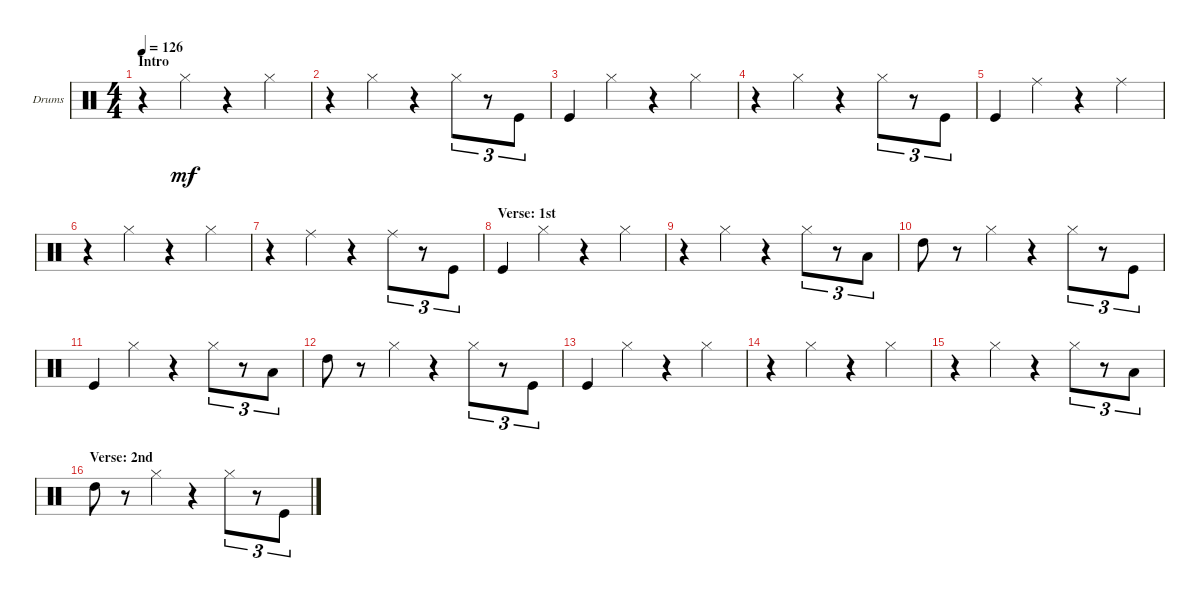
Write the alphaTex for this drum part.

\defaultSystemsLayout 4
\bracketExtendMode groupsimilarinstruments
\firstSystemTrackNameOrientation horizontal
\otherSystemsTrackNameOrientation horizontal
\track ("Drumkit" "Drums") {instrument percussion}
\staff {score}
\articulation defaults
\ts (4 4)
\section ("" "Intro")
\tempo 126
\clef neutral
\scale
0.472222
\ks c
r.4{dy mf} "Hi-Hat (closed)".4 r.4 "Hi-Hat (closed)".4 |
\scale
0.263889 r.4 "Hi-Hat (closed)".4 r.4 "Hi-Hat (closed)".8{tu (3 2)} r.8{tu (3 2)} "Kick (hit)".8{tu (3 2)} |
\scale
0.263889 "Kick (hit)".4 "Hi-Hat (closed)".4 r.4 "Hi-Hat (closed)".4 |
\scale
0.333333 r.4 "Hi-Hat (closed)".4 r.4 "Hi-Hat (closed)".8{tu (3 2)} r.8{tu (3 2)} "Kick (hit)".8{tu (3 2)} |
\scale
0.333333 "Kick (hit)".4 "Ride (middle)".4 r.4 "Ride (middle)".4 |
\scale
0.333333 r.4 "Hi-Hat (closed)".4 r.4 "Hi-Hat (closed)".4 |
\scale
0.333333 r.4 "Ride (middle)".4 r.4 "Ride (middle)".8{tu (3 2)} r.8{tu (3 2)} "Kick (hit)".8{tu (3 2)} |
\section ("" "Verse: 1st")
\scale
0.333333 "Kick (hit)".4 "Hi-Hat (closed)".4 r.4 "Hi-Hat (closed)".4 |
\scale
0.333333 r.4 "Hi-Hat (closed)".4 r.4 "Hi-Hat (closed)".8{tu (3 2)} r.8{tu (3 2)} "Low Tom (hit)".8{tu (3 2)} |
\scale
0.333333 "High Tom (hit)".8 r.8 "Hi-Hat (closed)".4 r.4 "Hi-Hat (closed)".8{tu (3 2)} r.8{tu (3 2)} "Kick (hit)".8{tu (3 2)} |
\scale
0.333333 "Kick (hit)".4 "Hi-Hat (closed)".4 r.4 "Hi-Hat (closed)".8{tu (3 2)} r.8{tu (3 2)} "Low Tom (hit)".8{tu (3 2)} |
\scale
0.333333 "High Tom (hit)".8 r.8 "Hi-Hat (closed)".4 r.4 "Hi-Hat (closed)".8{tu (3 2)} r.8{tu (3 2)} "Kick (hit)".8{tu (3 2)} |
\scale
0.333333 "Kick (hit)".4 "Hi-Hat (closed)".4 r.4 "Hi-Hat (closed)".4 |
\scale
0.333333 r.4 "Hi-Hat (closed)".4 r.4 "Hi-Hat (closed)".4 |
\scale
0.333333 r.4 "Hi-Hat (closed)".4 r.4 "Hi-Hat (closed)".8{tu (3 2)} r.8{tu (3 2)} "Low Tom (hit)".8{tu (3 2)} |
\section ("" "Verse: 2nd")
\scale
0.333333 "High Tom (hit)".8 r.8 "Hi-Hat (closed)".4 r.4 "Hi-Hat (closed)".8{tu (3 2)} r.8{tu (3 2)} "Kick (hit)".8{tu (3 2)}
